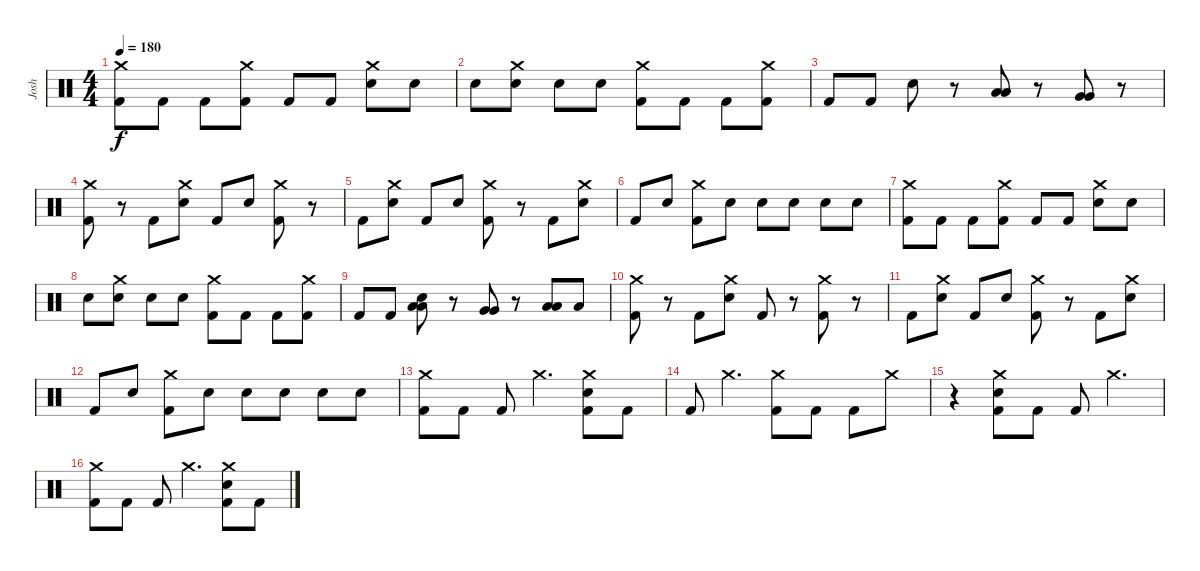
\track ("Josh" "Josh") {instrument percussion}
\staff {score}
\articulation defaults
\ts (4 4)
\tempo 180
\clef neutral
\ks c
("Crash medium (hit)" "Kick (hit) 2").8{dy f} "Kick (hit) 2".8 "Kick (hit) 2".8 ("Crash medium (hit)" "Kick (hit) 2").8 "Kick (hit) 2".8 "Kick (hit) 2".8 ("Crash medium (hit)" "Electric Snare (hit)").8 "Electric Snare (hit)".8 |
"Electric Snare (hit)".8 ("Crash medium (hit)" "Electric Snare (hit)").8 "Electric Snare (hit)".8 "Electric Snare (hit)".8 ("Crash medium (hit)" "Kick (hit) 2").8 "Kick (hit) 2".8 "Kick (hit) 2".8 ("Crash medium (hit)" "Kick (hit) 2").8 |
"Kick (hit) 2".8 "Kick (hit) 2".8 "Electric Snare (hit)".8 r.8 ("Low Tom (hit)" "Low Tom (hit)").8 r.8 ("Very Low Tom (hit)" "Very Low Tom (hit)").8 r.8 |
("Crash medium (hit)" "Kick (hit) 2").8 r.8 "Kick (hit) 2".8 ("Crash medium (hit)" "Electric Snare (hit)").8 "Kick (hit) 2".8 "Electric Snare (hit)".8 ("Crash medium (hit)" "Kick (hit) 2").8 r.8 |
"Kick (hit) 2".8 ("Crash medium (hit)" "Electric Snare (hit)").8 "Kick (hit) 2".8 "Electric Snare (hit)".8 ("Crash medium (hit)" "Kick (hit) 2").8 r.8 "Kick (hit) 2".8 ("Crash medium (hit)" "Electric Snare (hit)").8 |
"Kick (hit) 2".8 "Electric Snare (hit)".8 ("Crash medium (hit)" "Kick (hit) 2").8 "Electric Snare (hit)".8 "Electric Snare (hit)".8 "Electric Snare (hit)".8 "Electric Snare (hit)".8 "Electric Snare (hit)".8 |
("Crash medium (hit)" "Kick (hit) 2").8 "Kick (hit) 2".8 "Kick (hit) 2".8 ("Crash medium (hit)" "Kick (hit) 2").8 "Kick (hit) 2".8 "Kick (hit) 2".8 ("Crash medium (hit)" "Electric Snare (hit)").8 "Electric Snare (hit)".8 |
"Electric Snare (hit)".8 ("Crash medium (hit)" "Electric Snare (hit)").8 "Electric Snare (hit)".8 "Electric Snare (hit)".8 ("Crash medium (hit)" "Kick (hit) 2").8 "Kick (hit) 2".8 "Kick (hit) 2".8 ("Crash medium (hit)" "Kick (hit) 2").8 |
"Kick (hit) 2".8 "Kick (hit) 2".8 ("Electric Snare (hit)" "Low Tom (hit)" "Low Tom (hit)").8 r.8 ("Very Low Tom (hit)" "Very Low Tom (hit)").8 r.8 ("Low Floor Tom (hit)" "Low Floor Tom (hit)").8 "Low Floor Tom (hit)".8 |
("Crash medium (hit)" "Kick (hit) 2").8 r.8 "Kick (hit) 2".8 ("Crash medium (hit)" "Electric Snare (hit)").8 "Kick (hit) 2".8 r.8 ("Crash medium (hit)" "Kick (hit) 2").8 r.8 |
"Kick (hit) 2".8 ("Crash medium (hit)" "Electric Snare (hit)").8 "Kick (hit) 2".8 "Electric Snare (hit)".8 ("Crash medium (hit)" "Kick (hit) 2").8 r.8 "Kick (hit) 2".8 ("Crash medium (hit)" "Electric Snare (hit)").8 |
"Kick (hit) 2".8 "Electric Snare (hit)".8 ("Crash medium (hit)" "Kick (hit) 2").8 "Electric Snare (hit)".8 "Electric Snare (hit)".8 "Electric Snare (hit)".8 "Electric Snare (hit)".8 "Electric Snare (hit)".8 |
("Crash medium (hit)" "Kick (hit) 2").8 "Kick (hit) 2".8 "Kick (hit) 2".8 "Crash medium (hit)".4{d} ("Crash medium (hit)" "Electric Snare (hit)" "Kick (hit) 2").8 "Kick (hit) 2".8 |
"Kick (hit) 2".8 "Crash medium (hit)".4{d} ("Crash medium (hit)" "Kick (hit) 2").8 "Kick (hit) 2".8 "Kick (hit) 2".8 "Crash medium (hit)".8 |
r.4 ("Crash medium (hit)" "Electric Snare (hit)" "Kick (hit) 2").8 "Kick (hit) 2".8 "Kick (hit) 2".8 "Crash medium (hit)".4{d} |
("Crash medium (hit)" "Kick (hit) 2").8 "Kick (hit) 2".8 "Kick (hit) 2".8 "Crash medium (hit)".4{d} ("Crash medium (hit)" "Electric Snare (hit)" "Kick (hit) 2").8 "Kick (hit) 2".8
